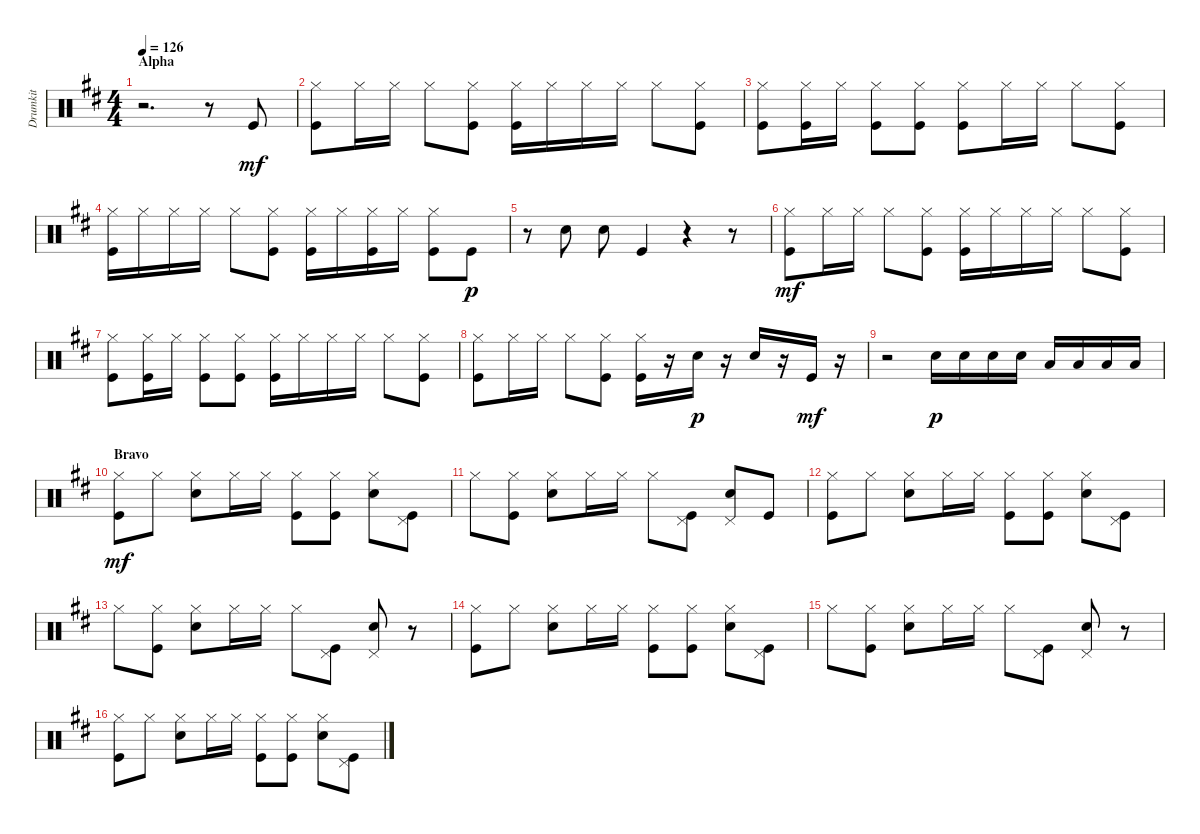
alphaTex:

\track ("Drumkit" "Drumkit") {instrument percussion}
\staff {score}
\articulation defaults
\ts (4 4)
\section ("" "Alpha")
\tempo 126
\clef neutral
\ks bminor
r.2{d dy mf} r.8 "Kick (hit)".8 |
("Hi-Hat (closed)" "Kick (hit)").8 "Hi-Hat (closed)".16 "Hi-Hat (closed)".16 "Hi-Hat (closed)".8 ("Hi-Hat (closed)" "Kick (hit)").8 ("Hi-Hat (closed)" "Kick (hit)").16 "Hi-Hat (closed)".16 "Hi-Hat (closed)".16 "Hi-Hat (closed)".16 "Hi-Hat (closed)".8 ("Hi-Hat (closed)" "Kick (hit)").8 |
("Hi-Hat (closed)" "Kick (hit)").8 ("Hi-Hat (closed)" "Kick (hit)").16 "Hi-Hat (closed)".16 ("Hi-Hat (closed)" "Kick (hit)").8 ("Hi-Hat (closed)" "Kick (hit)").8 ("Hi-Hat (closed)" "Kick (hit)").8 "Hi-Hat (closed)".16 "Hi-Hat (closed)".16 "Hi-Hat (closed)".8 ("Hi-Hat (closed)" "Kick (hit)").8 |
("Hi-Hat (closed)" "Kick (hit)").16 "Hi-Hat (closed)".16 "Hi-Hat (closed)".16 "Hi-Hat (closed)".16 "Hi-Hat (closed)".8 ("Hi-Hat (closed)" "Kick (hit)").8 ("Hi-Hat (closed)" "Kick (hit)").16 "Hi-Hat (closed)".16 ("Hi-Hat (closed)" "Kick (hit)").16 "Hi-Hat (closed)".16 ("Hi-Hat (closed)" "Kick (hit)").8 "Kick (hit)".8{dy p} |
r.8 "Snare (hit) 2".8 "Snare (hit) 2".8 "Kick (hit)".4 r.4 r.8 |
("Hi-Hat (closed)" "Kick (hit)").8{dy mf} "Hi-Hat (closed)".16 "Hi-Hat (closed)".16 "Hi-Hat (closed)".8 ("Hi-Hat (closed)" "Kick (hit)").8 ("Hi-Hat (closed)" "Kick (hit)").16 "Hi-Hat (closed)".16 "Hi-Hat (closed)".16 "Hi-Hat (closed)".16 "Hi-Hat (closed)".8 ("Hi-Hat (closed)" "Kick (hit)").8 |
("Hi-Hat (closed)" "Kick (hit)").8 ("Hi-Hat (closed)" "Kick (hit)").16 "Hi-Hat (closed)".16 ("Hi-Hat (closed)" "Kick (hit)").8 ("Hi-Hat (closed)" "Kick (hit)").8 ("Hi-Hat (closed)" "Kick (hit)").16 "Hi-Hat (closed)".16 "Hi-Hat (closed)".16 "Hi-Hat (closed)".16 "Hi-Hat (closed)".8 ("Hi-Hat (closed)" "Kick (hit)").8 |
("Hi-Hat (closed)" "Kick (hit)").8 "Hi-Hat (closed)".16 "Hi-Hat (closed)".16 "Hi-Hat (closed)".8 ("Hi-Hat (closed)" "Kick (hit)").8 ("Hi-Hat (closed)" "Kick (hit)").16 r.16 "Snare (hit) 2".16{dy p} r.16 "Snare (hit) 2".16 r.16 "Kick (hit)".16{dy mf} r.16 |
r.2 "Snare (hit) 2".16{dy p} "Snare (hit) 2".16 "Snare (hit) 2".16 "Snare (hit) 2".16 "Low Tom (hit)".16 "Low Tom (hit)".16 "Low Tom (hit)".16 "Low Tom (hit)".16 |
\section ("" "Bravo")
("Hi-Hat (closed)" "Kick (hit)").8{dy mf} "Hi-Hat (closed)".8 ("Hi-Hat (closed)" "Snare (hit) 2").8 "Hi-Hat (closed)".16 "Hi-Hat (closed)".16 ("Hi-Hat (closed)" "Kick (hit)").8 ("Hi-Hat (closed)" "Kick (hit)").8 ("Hi-Hat (closed)" "Snare (hit) 2").8 ("Kick (hit)" "Pedal Hi-Hat (hit)").8 |
"Hi-Hat (closed)".8 ("Hi-Hat (closed)" "Kick (hit)").8 ("Hi-Hat (closed)" "Snare (hit) 2").8 "Hi-Hat (closed)".16 "Hi-Hat (closed)".16 "Hi-Hat (closed)".8 ("Kick (hit)" "Pedal Hi-Hat (hit)").8 ("Snare (hit) 2" "Pedal Hi-Hat (hit)").8 "Kick (hit)".8 |
("Hi-Hat (closed)" "Kick (hit)").8 "Hi-Hat (closed)".8 ("Hi-Hat (closed)" "Snare (hit) 2").8 "Hi-Hat (closed)".16 "Hi-Hat (closed)".16 ("Hi-Hat (closed)" "Kick (hit)").8 ("Hi-Hat (closed)" "Kick (hit)").8 ("Hi-Hat (closed)" "Snare (hit) 2").8 ("Kick (hit)" "Pedal Hi-Hat (hit)").8 |
"Hi-Hat (closed)".8 ("Hi-Hat (closed)" "Kick (hit)").8 ("Hi-Hat (closed)" "Snare (hit) 2").8 "Hi-Hat (closed)".16 "Hi-Hat (closed)".16 "Hi-Hat (closed)".8 ("Kick (hit)" "Pedal Hi-Hat (hit)").8 ("Snare (hit) 2" "Pedal Hi-Hat (hit)").8 r.8 |
("Hi-Hat (closed)" "Kick (hit)").8 "Hi-Hat (closed)".8 ("Hi-Hat (closed)" "Snare (hit) 2").8 "Hi-Hat (closed)".16 "Hi-Hat (closed)".16 ("Hi-Hat (closed)" "Kick (hit)").8 ("Hi-Hat (closed)" "Kick (hit)").8 ("Hi-Hat (closed)" "Snare (hit) 2").8 ("Kick (hit)" "Pedal Hi-Hat (hit)").8 |
"Hi-Hat (closed)".8 ("Hi-Hat (closed)" "Kick (hit)").8 ("Hi-Hat (closed)" "Snare (hit) 2").8 "Hi-Hat (closed)".16 "Hi-Hat (closed)".16 "Hi-Hat (closed)".8 ("Kick (hit)" "Pedal Hi-Hat (hit)").8 ("Snare (hit) 2" "Pedal Hi-Hat (hit)").8 r.8 |
("Hi-Hat (closed)" "Kick (hit)").8 "Hi-Hat (closed)".8 ("Hi-Hat (closed)" "Snare (hit) 2").8 "Hi-Hat (closed)".16 "Hi-Hat (closed)".16 ("Hi-Hat (closed)" "Kick (hit)").8 ("Hi-Hat (closed)" "Kick (hit)").8 ("Hi-Hat (closed)" "Snare (hit) 2").8 ("Kick (hit)" "Pedal Hi-Hat (hit)").8
